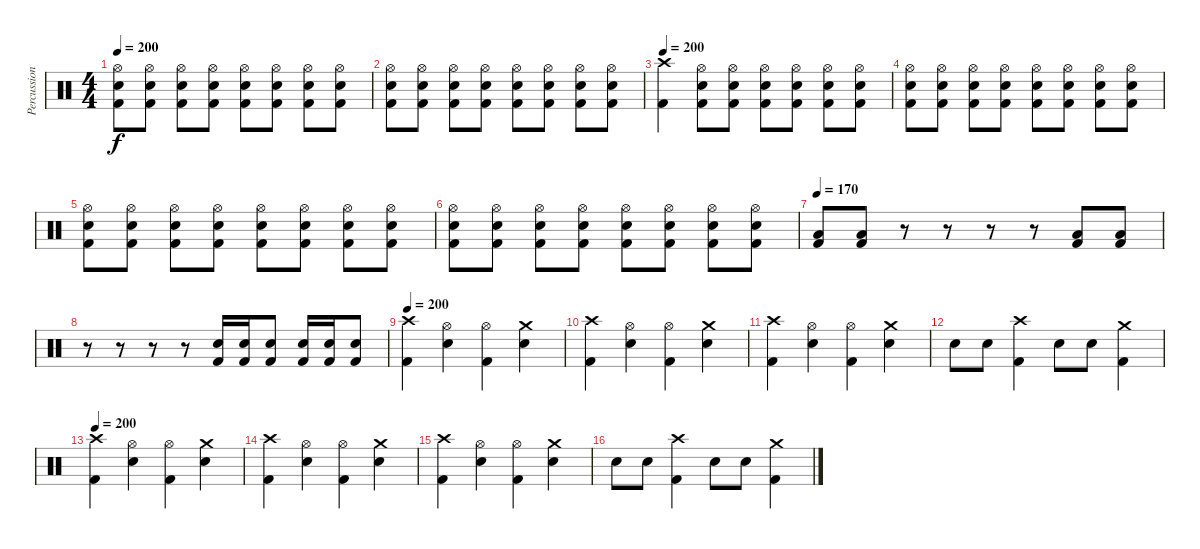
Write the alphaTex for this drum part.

\track ("Percussion" "Percussion") {instrument percussion}
\staff {score}
\articulation defaults
\ts (4 4)
\tempo 200
\clef neutral
\ks c
("Hi-Hat (open)" "Electric Snare (hit)" "Kick (hit) 2").8{dy f} ("Hi-Hat (open)" "Electric Snare (hit)" "Kick (hit) 2").8 ("Hi-Hat (open)" "Electric Snare (hit)" "Kick (hit) 2").8 ("Hi-Hat (open)" "Electric Snare (hit)" "Kick (hit) 2").8 ("Hi-Hat (open)" "Electric Snare (hit)" "Kick (hit) 2").8 ("Hi-Hat (open)" "Electric Snare (hit)" "Kick (hit) 2").8 ("Hi-Hat (open)" "Electric Snare (hit)" "Kick (hit) 2").8 ("Hi-Hat (open)" "Electric Snare (hit)" "Kick (hit) 2").8 |
("Hi-Hat (open)" "Electric Snare (hit)" "Kick (hit) 2").8 ("Hi-Hat (open)" "Electric Snare (hit)" "Kick (hit) 2").8 ("Hi-Hat (open)" "Electric Snare (hit)" "Kick (hit) 2").8 ("Hi-Hat (open)" "Electric Snare (hit)" "Kick (hit) 2").8 ("Hi-Hat (open)" "Electric Snare (hit)" "Kick (hit) 2").8 ("Hi-Hat (open)" "Electric Snare (hit)" "Kick (hit) 2").8 ("Hi-Hat (open)" "Electric Snare (hit)" "Kick (hit) 2").8 ("Hi-Hat (open)" "Electric Snare (hit)" "Kick (hit) 2").8 |
\tempo 200
("Crash high (hit)" "Kick (hit) 2").4 ("Hi-Hat (open)" "Electric Snare (hit)" "Kick (hit) 2").8 ("Hi-Hat (open)" "Electric Snare (hit)" "Kick (hit) 2").8 ("Hi-Hat (open)" "Electric Snare (hit)" "Kick (hit) 2").8 ("Hi-Hat (open)" "Electric Snare (hit)" "Kick (hit) 2").8 ("Hi-Hat (open)" "Electric Snare (hit)" "Kick (hit) 2").8 ("Hi-Hat (open)" "Electric Snare (hit)" "Kick (hit) 2").8 |
("Hi-Hat (open)" "Electric Snare (hit)" "Kick (hit) 2").8 ("Hi-Hat (open)" "Electric Snare (hit)" "Kick (hit) 2").8 ("Hi-Hat (open)" "Electric Snare (hit)" "Kick (hit) 2").8 ("Hi-Hat (open)" "Electric Snare (hit)" "Kick (hit) 2").8 ("Hi-Hat (open)" "Electric Snare (hit)" "Kick (hit) 2").8 ("Hi-Hat (open)" "Electric Snare (hit)" "Kick (hit) 2").8 ("Hi-Hat (open)" "Electric Snare (hit)" "Kick (hit) 2").8 ("Hi-Hat (open)" "Electric Snare (hit)" "Kick (hit) 2").8 |
("Hi-Hat (open)" "Electric Snare (hit)" "Kick (hit) 2").8 ("Hi-Hat (open)" "Electric Snare (hit)" "Kick (hit) 2").8 ("Hi-Hat (open)" "Electric Snare (hit)" "Kick (hit) 2").8 ("Hi-Hat (open)" "Electric Snare (hit)" "Kick (hit) 2").8 ("Hi-Hat (open)" "Electric Snare (hit)" "Kick (hit) 2").8 ("Hi-Hat (open)" "Electric Snare (hit)" "Kick (hit) 2").8 ("Hi-Hat (open)" "Electric Snare (hit)" "Kick (hit) 2").8 ("Hi-Hat (open)" "Electric Snare (hit)" "Kick (hit) 2").8 |
("Hi-Hat (open)" "Electric Snare (hit)" "Kick (hit) 2").8 ("Hi-Hat (open)" "Electric Snare (hit)" "Kick (hit) 2").8 ("Hi-Hat (open)" "Electric Snare (hit)" "Kick (hit) 2").8 ("Hi-Hat (open)" "Electric Snare (hit)" "Kick (hit) 2").8 ("Hi-Hat (open)" "Electric Snare (hit)" "Kick (hit) 2").8 ("Hi-Hat (open)" "Electric Snare (hit)" "Kick (hit) 2").8 ("Hi-Hat (open)" "Electric Snare (hit)" "Kick (hit) 2").8 ("Hi-Hat (open)" "Electric Snare (hit)" "Kick (hit) 2").8 |
\tempo 170
("Low Tom (hit)" "Kick (hit) 2").8 ("Low Tom (hit)" "Kick (hit) 2").8 r.8 r.8 r.8 r.8 ("Low Tom (hit)" "Kick (hit) 2").8 ("Low Tom (hit)" "Kick (hit) 2").8 |
r.8 r.8 r.8 r.8 ("Electric Snare (hit)" "Kick (hit) 2").16 ("Electric Snare (hit)" "Kick (hit) 2").16 ("Electric Snare (hit)" "Kick (hit) 2").8 ("Electric Snare (hit)" "Kick (hit) 2").16 ("Electric Snare (hit)" "Kick (hit) 2").16 ("Electric Snare (hit)" "Kick (hit) 2").8 |
\tempo 200
("Crash high (hit)" "Kick (hit) 2").4 ("Hi-Hat (open)" "Electric Snare (hit)").4 ("Hi-Hat (open)" "Kick (hit) 2").4 ("Crash medium (hit)" "Electric Snare (hit)").4 |
("Crash high (hit)" "Kick (hit) 2").4 ("Hi-Hat (open)" "Electric Snare (hit)").4 ("Hi-Hat (open)" "Kick (hit) 2").4 ("Crash medium (hit)" "Electric Snare (hit)").4 |
("Crash high (hit)" "Kick (hit) 2").4 ("Hi-Hat (open)" "Electric Snare (hit)").4 ("Hi-Hat (open)" "Kick (hit) 2").4 ("Crash medium (hit)" "Electric Snare (hit)").4 |
"Electric Snare (hit)".8 "Electric Snare (hit)".8 ("Crash high (hit)" "Kick (hit) 2").4 "Electric Snare (hit)".8 "Electric Snare (hit)".8 ("Crash medium (hit)" "Kick (hit) 2").4 |
\tempo 200
("Crash high (hit)" "Kick (hit) 2").4 ("Hi-Hat (open)" "Electric Snare (hit)").4 ("Hi-Hat (open)" "Kick (hit) 2").4 ("Crash medium (hit)" "Electric Snare (hit)").4 |
("Crash high (hit)" "Kick (hit) 2").4 ("Hi-Hat (open)" "Electric Snare (hit)").4 ("Hi-Hat (open)" "Kick (hit) 2").4 ("Crash medium (hit)" "Electric Snare (hit)").4 |
("Crash high (hit)" "Kick (hit) 2").4 ("Hi-Hat (open)" "Electric Snare (hit)").4 ("Hi-Hat (open)" "Kick (hit) 2").4 ("Crash medium (hit)" "Electric Snare (hit)").4 |
"Electric Snare (hit)".8 "Electric Snare (hit)".8 ("Crash high (hit)" "Kick (hit) 2").4 "Electric Snare (hit)".8 "Electric Snare (hit)".8 ("Crash medium (hit)" "Kick (hit) 2").4
